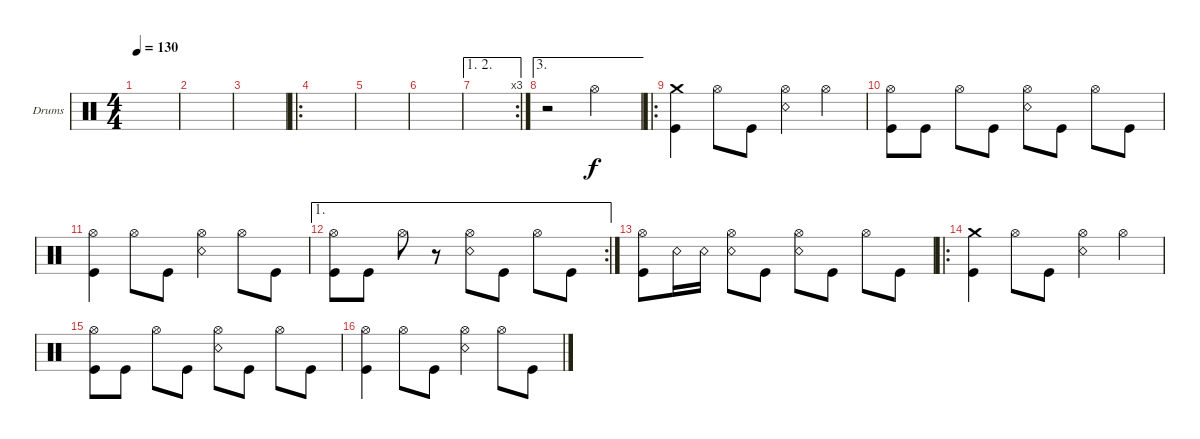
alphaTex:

\defaultSystemsLayout 4
\bracketExtendMode groupsimilarinstruments
\firstSystemTrackNameOrientation horizontal
\otherSystemsTrackNameOrientation horizontal
\track ("Drumkit" "Drums") {instrument percussion}
\staff {score}
\articulation defaults
\ts (4 4)
\tempo 130
\clef neutral
\scale
0.333333
\ks c
|
\scale
0.311475 |
\scale
0.311475 |
\ro
\scale
0.377049 |
\scale
0.322034 |
\scale
0.322034 |
\ae (1 2)
\rc 3
\scale
0.355932 |
\ae 3
\scale
0.311475 r.2 "Hi-Hat (open)".2{dy f} |
\ro
\scale
0.377049 ("Kick (hit)" "Crash medium (hit)").4 "Hi-Hat (open)".8 "Kick (hit)".8 ("Snare (rim shot)" "Hi-Hat (open)").4 "Hi-Hat (open)".4 |
\scale
0.311475 ("Kick (hit)" "Hi-Hat (open)").8 "Kick (hit)".8 "Hi-Hat (open)".8 "Kick (hit)".8 ("Snare (rim shot)" "Hi-Hat (open)").8 "Kick (hit)".8 "Hi-Hat (open)".8 "Kick (hit)".8 |
\scale
0.301587 ("Kick (hit)" "Hi-Hat (open)").4 "Hi-Hat (open)".8 "Kick (hit)".8 ("Snare (rim shot)" "Hi-Hat (open)").4 "Hi-Hat (open)".8 "Kick (hit)".8 |
\ae 1
\rc 2
\scale
0.333333 ("Kick (hit)" "Hi-Hat (open)").8 "Kick (hit)".8 "Hi-Hat (open)".8 r.8 ("Snare (rim shot)" "Hi-Hat (open)").8 "Kick (hit)".8 "Hi-Hat (open)".8 "Kick (hit)".8 |
("Kick (hit)" "Hi-Hat (open)").8 "Snare (rim shot)".16 "Snare (rim shot)".16 ("Snare (rim shot)" "Hi-Hat (open)").8 "Kick (hit)".8 ("Hi-Hat (open)" "Snare (rim shot)").8 "Kick (hit)".8 "Hi-Hat (open)".8 "Kick (hit)".8 |
\ro
("Kick (hit)" "Crash medium (hit)").4 "Hi-Hat (open)".8 "Kick (hit)".8 ("Snare (rim shot)" "Hi-Hat (open)").4 "Hi-Hat (open)".4 |
("Kick (hit)" "Hi-Hat (open)").8 "Kick (hit)".8 "Hi-Hat (open)".8 "Kick (hit)".8 ("Snare (rim shot)" "Hi-Hat (open)").8 "Kick (hit)".8 "Hi-Hat (open)".8 "Kick (hit)".8 |
("Kick (hit)" "Hi-Hat (open)").4 "Hi-Hat (open)".8 "Kick (hit)".8 ("Snare (rim shot)" "Hi-Hat (open)").4 "Hi-Hat (open)".8 "Kick (hit)".8
